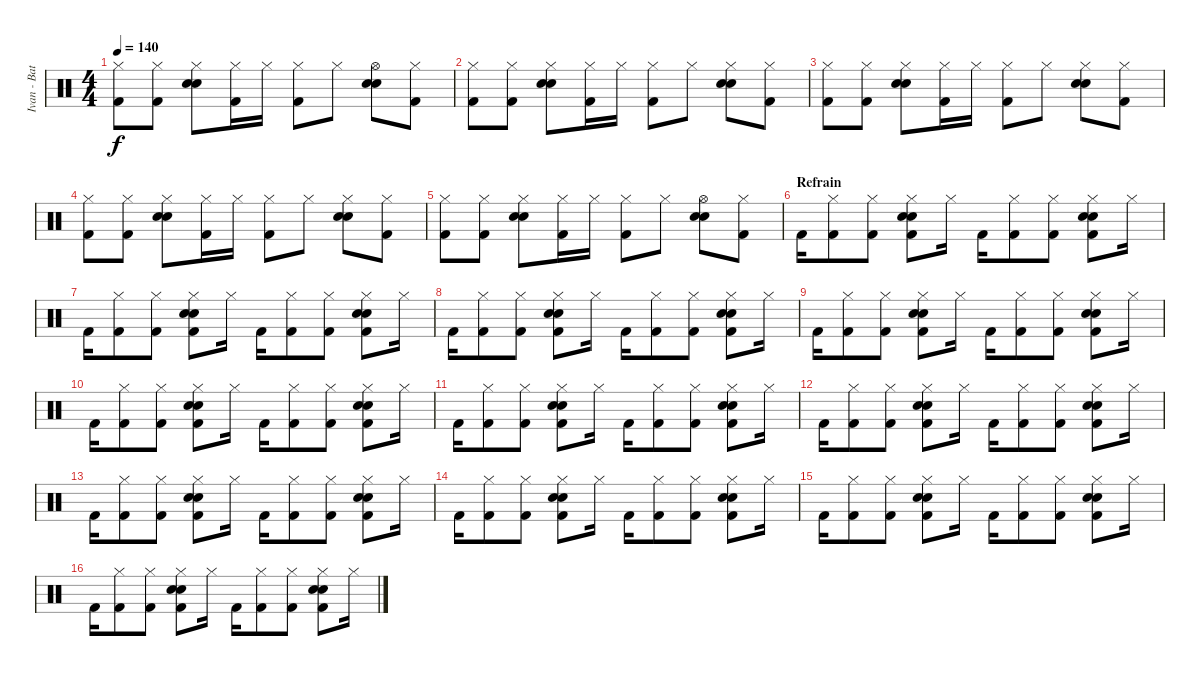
\track ("Ivan - Batterie" "Ivan - Bat") {instrument percussion}
\staff {score}
\articulation defaults
\ts (4 4)
\tempo 140
\clef neutral
\ks c
("Hi-Hat (closed)" "Kick (hit) 2").8{dy f} ("Hi-Hat (closed)" "Kick (hit) 2").8 ("Hi-Hat (closed)" "Electric Snare (hit)" "Snare (hit) 2").8 ("Hi-Hat (closed)" "Kick (hit) 2").16 "Hi-Hat (closed)".16 ("Hi-Hat (closed)" "Kick (hit) 2").8 "Hi-Hat (closed)".8 ("Hi-Hat (open)" "Electric Snare (hit)" "Snare (hit) 2").8 ("Hi-Hat (closed)" "Kick (hit) 2").8 |
("Hi-Hat (closed)" "Kick (hit) 2").8 ("Hi-Hat (closed)" "Kick (hit) 2").8 ("Hi-Hat (closed)" "Electric Snare (hit)" "Snare (hit) 2").8 ("Hi-Hat (closed)" "Kick (hit) 2").16 "Hi-Hat (closed)".16 ("Hi-Hat (closed)" "Kick (hit) 2").8 "Hi-Hat (closed)".8 ("Hi-Hat (closed)" "Electric Snare (hit)" "Snare (hit) 2").8 ("Hi-Hat (closed)" "Kick (hit) 2").8 |
("Hi-Hat (closed)" "Kick (hit) 2").8 ("Hi-Hat (closed)" "Kick (hit) 2").8 ("Hi-Hat (closed)" "Electric Snare (hit)" "Snare (hit) 2").8 ("Hi-Hat (closed)" "Kick (hit) 2").16 "Hi-Hat (closed)".16 ("Hi-Hat (closed)" "Kick (hit) 2").8 "Hi-Hat (closed)".8 ("Hi-Hat (closed)" "Electric Snare (hit)" "Snare (hit) 2").8 ("Hi-Hat (closed)" "Kick (hit) 2").8 |
("Hi-Hat (closed)" "Kick (hit) 2").8 ("Hi-Hat (closed)" "Kick (hit) 2").8 ("Hi-Hat (closed)" "Electric Snare (hit)" "Snare (hit) 2").8 ("Hi-Hat (closed)" "Kick (hit) 2").16 "Hi-Hat (closed)".16 ("Hi-Hat (closed)" "Kick (hit) 2").8 "Hi-Hat (closed)".8 ("Hi-Hat (closed)" "Electric Snare (hit)" "Snare (hit) 2").8 ("Hi-Hat (closed)" "Kick (hit) 2").8 |
("Hi-Hat (closed)" "Kick (hit) 2").8 ("Hi-Hat (closed)" "Kick (hit) 2").8 ("Hi-Hat (closed)" "Electric Snare (hit)" "Snare (hit) 2").8 ("Hi-Hat (closed)" "Kick (hit) 2").16 "Hi-Hat (closed)".16 ("Hi-Hat (closed)" "Kick (hit) 2").8 "Hi-Hat (closed)".8 ("Hi-Hat (open)" "Electric Snare (hit)" "Snare (hit) 2").8 ("Hi-Hat (closed)" "Kick (hit) 2").8 |
\section ("" "Refrain")
"Kick (hit) 2".16 ("Hi-Hat (closed)" "Kick (hit) 2").8 ("Hi-Hat (closed)" "Kick (hit) 2").8 ("Hi-Hat (closed)" "Electric Snare (hit)" "Snare (hit) 2" "Kick (hit) 2").8 "Hi-Hat (closed)".16 "Kick (hit) 2".16 ("Hi-Hat (closed)" "Kick (hit) 2").8 ("Hi-Hat (closed)" "Kick (hit) 2").8 ("Hi-Hat (closed)" "Electric Snare (hit)" "Snare (hit) 2" "Kick (hit) 2").8 "Hi-Hat (closed)".16 |
"Kick (hit) 2".16 ("Hi-Hat (closed)" "Kick (hit) 2").8 ("Hi-Hat (closed)" "Kick (hit) 2").8 ("Hi-Hat (closed)" "Electric Snare (hit)" "Snare (hit) 2" "Kick (hit) 2").8 "Hi-Hat (closed)".16 "Kick (hit) 2".16 ("Hi-Hat (closed)" "Kick (hit) 2").8 ("Hi-Hat (closed)" "Kick (hit) 2").8 ("Hi-Hat (closed)" "Electric Snare (hit)" "Snare (hit) 2" "Kick (hit) 2").8 "Hi-Hat (closed)".16 |
"Kick (hit) 2".16 ("Hi-Hat (closed)" "Kick (hit) 2").8 ("Hi-Hat (closed)" "Kick (hit) 2").8 ("Hi-Hat (closed)" "Electric Snare (hit)" "Snare (hit) 2" "Kick (hit) 2").8 "Hi-Hat (closed)".16 "Kick (hit) 2".16 ("Hi-Hat (closed)" "Kick (hit) 2").8 ("Hi-Hat (closed)" "Kick (hit) 2").8 ("Hi-Hat (closed)" "Electric Snare (hit)" "Snare (hit) 2" "Kick (hit) 2").8 "Hi-Hat (closed)".16 |
"Kick (hit) 2".16 ("Hi-Hat (closed)" "Kick (hit) 2").8 ("Hi-Hat (closed)" "Kick (hit) 2").8 ("Hi-Hat (closed)" "Electric Snare (hit)" "Snare (hit) 2" "Kick (hit) 2").8 "Hi-Hat (closed)".16 "Kick (hit) 2".16 ("Hi-Hat (closed)" "Kick (hit) 2").8 ("Hi-Hat (closed)" "Kick (hit) 2").8 ("Hi-Hat (closed)" "Electric Snare (hit)" "Snare (hit) 2" "Kick (hit) 2").8 "Hi-Hat (closed)".16 |
"Kick (hit) 2".16 ("Hi-Hat (closed)" "Kick (hit) 2").8 ("Hi-Hat (closed)" "Kick (hit) 2").8 ("Hi-Hat (closed)" "Electric Snare (hit)" "Snare (hit) 2" "Kick (hit) 2").8 "Hi-Hat (closed)".16 "Kick (hit) 2".16 ("Hi-Hat (closed)" "Kick (hit) 2").8 ("Hi-Hat (closed)" "Kick (hit) 2").8 ("Hi-Hat (closed)" "Electric Snare (hit)" "Snare (hit) 2" "Kick (hit) 2").8 "Hi-Hat (closed)".16 |
"Kick (hit) 2".16 ("Hi-Hat (closed)" "Kick (hit) 2").8 ("Hi-Hat (closed)" "Kick (hit) 2").8 ("Hi-Hat (closed)" "Electric Snare (hit)" "Snare (hit) 2" "Kick (hit) 2").8 "Hi-Hat (closed)".16 "Kick (hit) 2".16 ("Hi-Hat (closed)" "Kick (hit) 2").8 ("Hi-Hat (closed)" "Kick (hit) 2").8 ("Hi-Hat (closed)" "Electric Snare (hit)" "Snare (hit) 2" "Kick (hit) 2").8 "Hi-Hat (closed)".16 |
"Kick (hit) 2".16 ("Hi-Hat (closed)" "Kick (hit) 2").8 ("Hi-Hat (closed)" "Kick (hit) 2").8 ("Hi-Hat (closed)" "Electric Snare (hit)" "Snare (hit) 2" "Kick (hit) 2").8 "Hi-Hat (closed)".16 "Kick (hit) 2".16 ("Hi-Hat (closed)" "Kick (hit) 2").8 ("Hi-Hat (closed)" "Kick (hit) 2").8 ("Hi-Hat (closed)" "Electric Snare (hit)" "Snare (hit) 2" "Kick (hit) 2").8 "Hi-Hat (closed)".16 |
"Kick (hit) 2".16 ("Hi-Hat (closed)" "Kick (hit) 2").8 ("Hi-Hat (closed)" "Kick (hit) 2").8 ("Hi-Hat (closed)" "Electric Snare (hit)" "Snare (hit) 2" "Kick (hit) 2").8 "Hi-Hat (closed)".16 "Kick (hit) 2".16 ("Hi-Hat (closed)" "Kick (hit) 2").8 ("Hi-Hat (closed)" "Kick (hit) 2").8 ("Hi-Hat (closed)" "Electric Snare (hit)" "Snare (hit) 2" "Kick (hit) 2").8 "Hi-Hat (closed)".16 |
"Kick (hit) 2".16 ("Hi-Hat (closed)" "Kick (hit) 2").8 ("Hi-Hat (closed)" "Kick (hit) 2").8 ("Hi-Hat (closed)" "Electric Snare (hit)" "Snare (hit) 2" "Kick (hit) 2").8 "Hi-Hat (closed)".16 "Kick (hit) 2".16 ("Hi-Hat (closed)" "Kick (hit) 2").8 ("Hi-Hat (closed)" "Kick (hit) 2").8 ("Hi-Hat (closed)" "Electric Snare (hit)" "Snare (hit) 2" "Kick (hit) 2").8 "Hi-Hat (closed)".16 |
"Kick (hit) 2".16 ("Hi-Hat (closed)" "Kick (hit) 2").8 ("Hi-Hat (closed)" "Kick (hit) 2").8 ("Hi-Hat (closed)" "Electric Snare (hit)" "Snare (hit) 2" "Kick (hit) 2").8 "Hi-Hat (closed)".16 "Kick (hit) 2".16 ("Hi-Hat (closed)" "Kick (hit) 2").8 ("Hi-Hat (closed)" "Kick (hit) 2").8 ("Hi-Hat (closed)" "Electric Snare (hit)" "Snare (hit) 2" "Kick (hit) 2").8 "Hi-Hat (closed)".16 |
"Kick (hit) 2".16 ("Hi-Hat (closed)" "Kick (hit) 2").8 ("Hi-Hat (closed)" "Kick (hit) 2").8 ("Hi-Hat (closed)" "Electric Snare (hit)" "Snare (hit) 2" "Kick (hit) 2").8 "Hi-Hat (closed)".16 "Kick (hit) 2".16 ("Hi-Hat (closed)" "Kick (hit) 2").8 ("Hi-Hat (closed)" "Kick (hit) 2").8 ("Hi-Hat (closed)" "Electric Snare (hit)" "Snare (hit) 2" "Kick (hit) 2").8 "Hi-Hat (closed)".16
